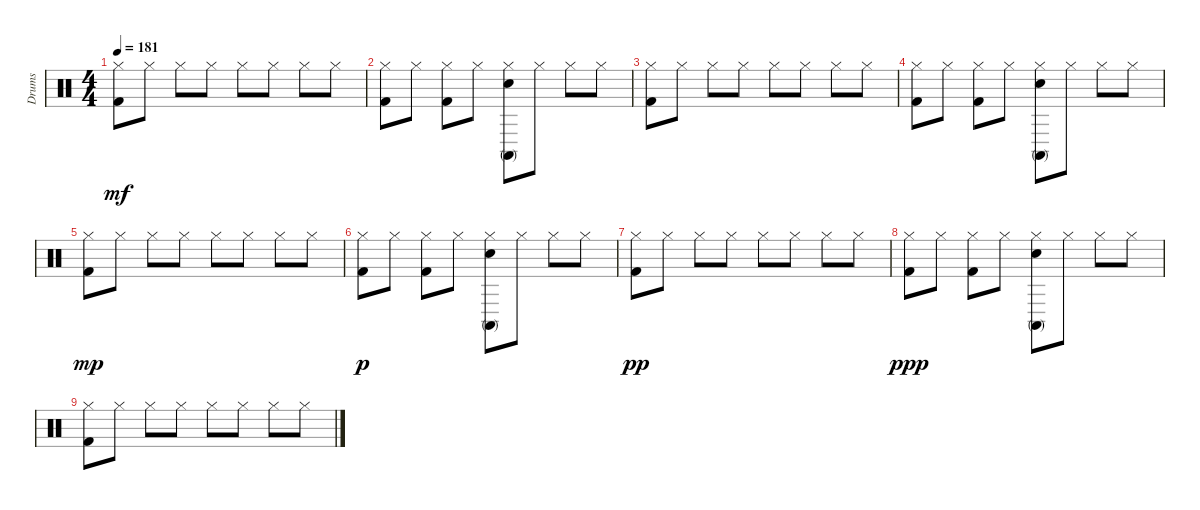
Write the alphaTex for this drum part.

\track ("Drums" "Drums") {instrument percussion}
\staff {score}
\articulation defaults
\ts (4 4)
\tempo 181
\clef neutral
\ks c
("Hi-Hat (closed)" "Kick (hit) 2").8{dy mf} "Hi-Hat (closed)".8 "Hi-Hat (closed)".8 "Hi-Hat (closed)".8 "Hi-Hat (closed)".8 "Hi-Hat (closed)".8 "Hi-Hat (closed)".8 "Hi-Hat (closed)".8 |
("Hi-Hat (closed)" "Kick (hit) 2").8 "Hi-Hat (closed)".8 ("Hi-Hat (closed)" "Kick (hit) 2").8 "Hi-Hat (closed)".8 ("Hi-Hat (closed)" "Conga high (mute)" "Electric Snare (hit)").8 "Hi-Hat (closed)".8 "Hi-Hat (closed)".8 "Hi-Hat (closed)".8 |
("Hi-Hat (closed)" "Kick (hit) 2").8 "Hi-Hat (closed)".8 "Hi-Hat (closed)".8 "Hi-Hat (closed)".8 "Hi-Hat (closed)".8 "Hi-Hat (closed)".8 "Hi-Hat (closed)".8 "Hi-Hat (closed)".8 |
("Hi-Hat (closed)" "Kick (hit) 2").8 "Hi-Hat (closed)".8 ("Hi-Hat (closed)" "Kick (hit) 2").8 "Hi-Hat (closed)".8 ("Hi-Hat (closed)" "Conga high (mute)" "Electric Snare (hit)").8 "Hi-Hat (closed)".8 "Hi-Hat (closed)".8 "Hi-Hat (closed)".8 |
("Hi-Hat (closed)" "Kick (hit) 2").8{dy mp} "Hi-Hat (closed)".8 "Hi-Hat (closed)".8 "Hi-Hat (closed)".8 "Hi-Hat (closed)".8 "Hi-Hat (closed)".8 "Hi-Hat (closed)".8 "Hi-Hat (closed)".8 |
("Hi-Hat (closed)" "Kick (hit) 2").8{dy p} "Hi-Hat (closed)".8 ("Hi-Hat (closed)" "Kick (hit) 2").8 "Hi-Hat (closed)".8 ("Hi-Hat (closed)" "Conga high (mute)" "Electric Snare (hit)").8 "Hi-Hat (closed)".8 "Hi-Hat (closed)".8 "Hi-Hat (closed)".8 |
("Hi-Hat (closed)" "Kick (hit) 2").8{dy pp} "Hi-Hat (closed)".8 "Hi-Hat (closed)".8 "Hi-Hat (closed)".8 "Hi-Hat (closed)".8 "Hi-Hat (closed)".8 "Hi-Hat (closed)".8 "Hi-Hat (closed)".8 |
("Hi-Hat (closed)" "Kick (hit) 2").8{dy ppp} "Hi-Hat (closed)".8 ("Hi-Hat (closed)" "Kick (hit) 2").8 "Hi-Hat (closed)".8 ("Hi-Hat (closed)" "Conga high (mute)" "Electric Snare (hit)").8 "Hi-Hat (closed)".8 "Hi-Hat (closed)".8 "Hi-Hat (closed)".8 |
("Hi-Hat (closed)" "Kick (hit) 2").8 "Hi-Hat (closed)".8 "Hi-Hat (closed)".8 "Hi-Hat (closed)".8 "Hi-Hat (closed)".8 "Hi-Hat (closed)".8 "Hi-Hat (closed)".8 "Hi-Hat (closed)".8
